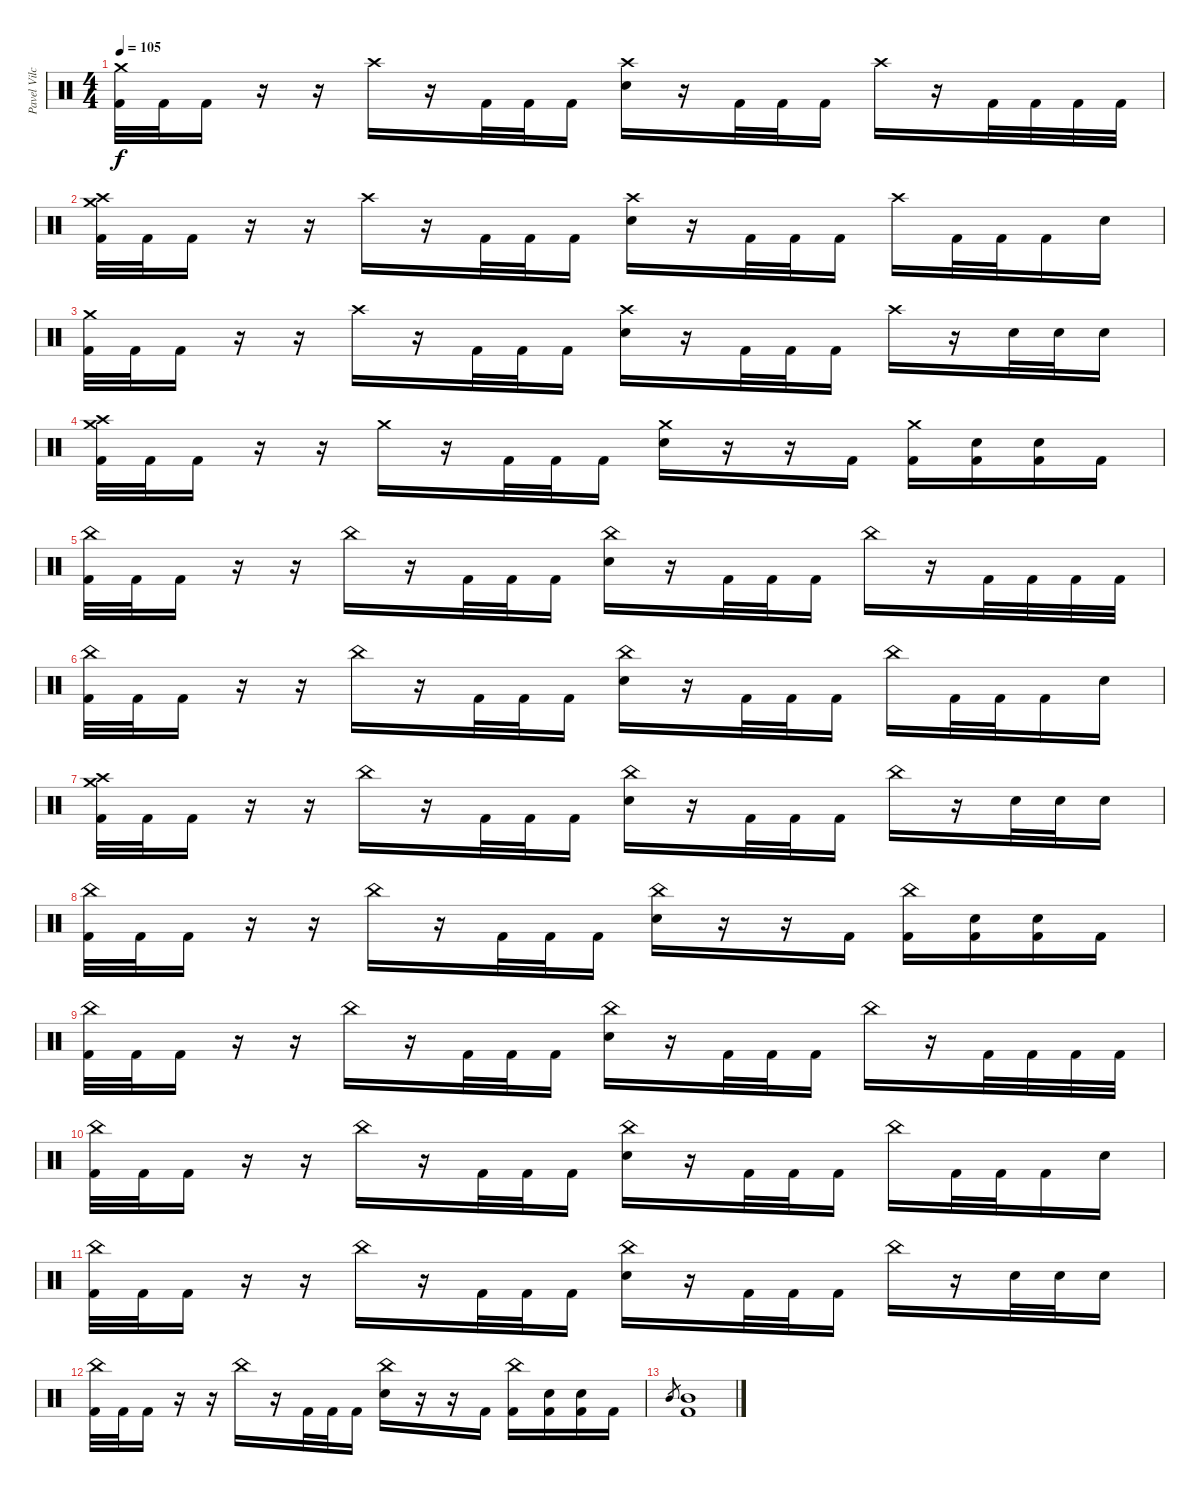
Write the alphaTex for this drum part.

\track ("Pavel Vilchytski " "Pavel Vilc") {instrument percussion}
\staff {score}
\articulation defaults
\ts (4 4)
\tempo 105
\clef neutral
\ks c
("Crash medium (hit)" "Kick (hit) 2").32{dy f} "Kick (hit) 2".32 "Kick (hit) 2".16 r.16 r.16 "Crash high (hit)".16 r.16 "Kick (hit) 2".32 "Kick (hit) 2".32 "Kick (hit) 2".16 ("Crash high (hit)" "Electric Snare (hit)").16 r.16 "Kick (hit) 2".32 "Kick (hit) 2".32 "Kick (hit) 2".16 "Crash high (hit)".16 r.16 "Kick (hit) 2".32 "Kick (hit) 2".32 "Kick (hit) 2".32 "Kick (hit) 2".32 |
("Crash medium (hit)" "Crash high (hit)" "Kick (hit) 2").32 "Kick (hit) 2".32 "Kick (hit) 2".16 r.16 r.16 "Crash high (hit)".16 r.16 "Kick (hit) 2".32 "Kick (hit) 2".32 "Kick (hit) 2".16 ("Crash high (hit)" "Electric Snare (hit)").16 r.16 "Kick (hit) 2".32 "Kick (hit) 2".32 "Kick (hit) 2".16 "Crash high (hit)".16 "Kick (hit) 2".32 "Kick (hit) 2".32 "Kick (hit) 2".16 "Electric Snare (hit)".16 |
("Crash medium (hit)" "Kick (hit) 2").32 "Kick (hit) 2".32 "Kick (hit) 2".16 r.16 r.16 "Crash high (hit)".16 r.16 "Kick (hit) 2".32 "Kick (hit) 2".32 "Kick (hit) 2".16 ("Crash high (hit)" "Electric Snare (hit)").16 r.16 "Kick (hit) 2".32 "Kick (hit) 2".32 "Kick (hit) 2".16 "Crash high (hit)".16 r.16 "Electric Snare (hit)".32 "Electric Snare (hit)".32 "Electric Snare (hit)".16 |
("Crash medium (hit)" "Crash high (hit)" "Kick (hit) 2").32 "Kick (hit) 2".32 "Kick (hit) 2".16 r.16 r.16 "Crash medium (hit)".16 r.16 "Kick (hit) 2".32 "Kick (hit) 2".32 "Kick (hit) 2".16 ("Crash medium (hit)" "Electric Snare (hit)").16 r.16 r.16 "Kick (hit) 2".16 ("Crash medium (hit)" "Kick (hit) 2").16 ("Electric Snare (hit)" "Kick (hit) 2").16 ("Electric Snare (hit)" "Kick (hit) 2").16 "Kick (hit) 2".16 |
("China (hit)" "Kick (hit) 2").32 "Kick (hit) 2".32 "Kick (hit) 2".16 r.16 r.16 "China (hit)".16 r.16 "Kick (hit) 2".32 "Kick (hit) 2".32 "Kick (hit) 2".16 ("China (hit)" "Electric Snare (hit)").16 r.16 "Kick (hit) 2".32 "Kick (hit) 2".32 "Kick (hit) 2".16 "China (hit)".16 r.16 "Kick (hit) 2".32 "Kick (hit) 2".32 "Kick (hit) 2".32 "Kick (hit) 2".32 |
("China (hit)" "Kick (hit) 2").32 "Kick (hit) 2".32 "Kick (hit) 2".16 r.16 r.16 "China (hit)".16 r.16 "Kick (hit) 2".32 "Kick (hit) 2".32 "Kick (hit) 2".16 ("China (hit)" "Electric Snare (hit)").16 r.16 "Kick (hit) 2".32 "Kick (hit) 2".32 "Kick (hit) 2".16 "China (hit)".16 "Kick (hit) 2".32 "Kick (hit) 2".32 "Kick (hit) 2".16 "Electric Snare (hit)".16 |
("Crash medium (hit)" "Crash high (hit)" "Kick (hit) 2").32 "Kick (hit) 2".32 "Kick (hit) 2".16 r.16 r.16 "China (hit)".16 r.16 "Kick (hit) 2".32 "Kick (hit) 2".32 "Kick (hit) 2".16 ("China (hit)" "Electric Snare (hit)").16 r.16 "Kick (hit) 2".32 "Kick (hit) 2".32 "Kick (hit) 2".16 "China (hit)".16 r.16 "Electric Snare (hit)".32 "Electric Snare (hit)".32 "Electric Snare (hit)".16 |
("China (hit)" "Kick (hit) 2").32 "Kick (hit) 2".32 "Kick (hit) 2".16 r.16 r.16 "China (hit)".16 r.16 "Kick (hit) 2".32 "Kick (hit) 2".32 "Kick (hit) 2".16 ("China (hit)" "Electric Snare (hit)").16 r.16 r.16 "Kick (hit) 2".16 ("China (hit)" "Kick (hit) 2").16 ("Electric Snare (hit)" "Kick (hit) 2").16 ("Electric Snare (hit)" "Kick (hit) 2").16 "Kick (hit) 2".16 |
("China (hit)" "Kick (hit) 2").32 "Kick (hit) 2".32 "Kick (hit) 2".16 r.16 r.16 "China (hit)".16 r.16 "Kick (hit) 2".32 "Kick (hit) 2".32 "Kick (hit) 2".16 ("China (hit)" "Electric Snare (hit)").16 r.16 "Kick (hit) 2".32 "Kick (hit) 2".32 "Kick (hit) 2".16 "China (hit)".16 r.16 "Kick (hit) 2".32 "Kick (hit) 2".32 "Kick (hit) 2".32 "Kick (hit) 2".32 |
("China (hit)" "Kick (hit) 2").32 "Kick (hit) 2".32 "Kick (hit) 2".16 r.16 r.16 "China (hit)".16 r.16 "Kick (hit) 2".32 "Kick (hit) 2".32 "Kick (hit) 2".16 ("China (hit)" "Electric Snare (hit)").16 r.16 "Kick (hit) 2".32 "Kick (hit) 2".32 "Kick (hit) 2".16 "China (hit)".16 "Kick (hit) 2".32 "Kick (hit) 2".32 "Kick (hit) 2".16 "Electric Snare (hit)".16 |
("China (hit)" "Kick (hit) 2").32 "Kick (hit) 2".32 "Kick (hit) 2".16 r.16 r.16 "China (hit)".16 r.16 "Kick (hit) 2".32 "Kick (hit) 2".32 "Kick (hit) 2".16 ("China (hit)" "Electric Snare (hit)").16 r.16 "Kick (hit) 2".32 "Kick (hit) 2".32 "Kick (hit) 2".16 "China (hit)".16 r.16 "Electric Snare (hit)".32 "Electric Snare (hit)".32 "Electric Snare (hit)".16 |
("China (hit)" "Kick (hit) 2").32 "Kick (hit) 2".32 "Kick (hit) 2".16 r.16 r.16 "China (hit)".16 r.16 "Kick (hit) 2".32 "Kick (hit) 2".32 "Kick (hit) 2".16 ("China (hit)" "Electric Snare (hit)").16 r.16 r.16 "Kick (hit) 2".16 ("China (hit)" "Kick (hit) 2").16 ("Electric Snare (hit)" "Kick (hit) 2").16 ("Electric Snare (hit)" "Kick (hit) 2").16 "Kick (hit) 2".16 |
"Mid Tom (hit)".8{gr} ("Mid Tom (hit)" "Kick (hit) 2").1
